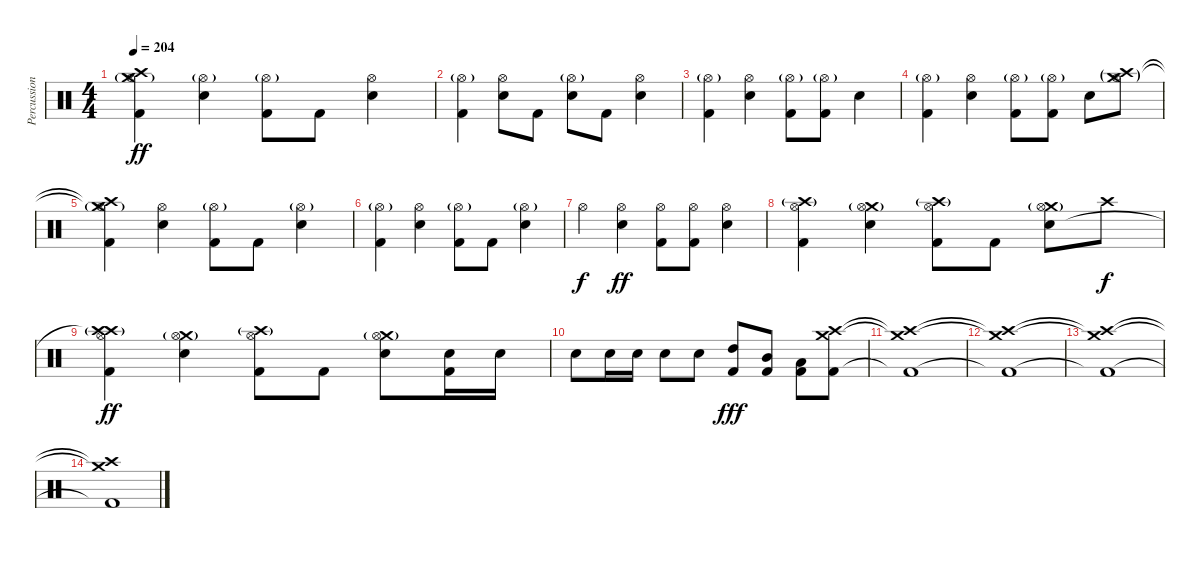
\track ("Percussion" "Percussion") {instrument percussion}
\staff {score}
\articulation defaults
\ts (4 4)
\tempo 204
\clef neutral
\ks c
("Crash medium (hit)"{t} "Crash high (hit)"{t} "Hi-Hat (open)"{g} "Kick (hit) 2").4{dy ff} ("Electric Snare (hit)" "Hi-Hat (open)"{g}).4 ("Hi-Hat (open)"{g} "Kick (hit) 2").8 "Kick (hit) 2".8 ("Electric Snare (hit)" "Hi-Hat (open)").4 |
("Hi-Hat (open)"{g} "Kick (hit) 2").4 ("Electric Snare (hit)" "Hi-Hat (open)").8 "Kick (hit) 2".8 ("Electric Snare (hit)" "Hi-Hat (open)"{g}).8 "Kick (hit) 2".8 ("Electric Snare (hit)" "Hi-Hat (open)").4 |
("Hi-Hat (open)"{g} "Kick (hit) 2").4 ("Electric Snare (hit)" "Hi-Hat (open)").4 ("Hi-Hat (open)"{g} "Kick (hit) 2").8 ("Hi-Hat (open)"{g} "Kick (hit) 2").8 "Electric Snare (hit)".4 |
("Hi-Hat (open)"{g} "Kick (hit) 2").4 ("Electric Snare (hit)" "Hi-Hat (open)").4 ("Hi-Hat (open)"{g} "Kick (hit) 2").8 ("Hi-Hat (open)"{g} "Kick (hit) 2").8 "Electric Snare (hit)".8 ("Crash medium (hit)"{g} "Crash high (hit)"{g} "Hi-Hat (open)"{g}).8 |
("Crash medium (hit)"{t} "Crash high (hit)"{t} "Hi-Hat (open)"{g} "Kick (hit) 2").4 ("Electric Snare (hit)" "Hi-Hat (open)").4 ("Hi-Hat (open)"{g} "Kick (hit) 2").8 "Kick (hit) 2".8 ("Electric Snare (hit)" "Hi-Hat (open)"{g}).4 |
("Hi-Hat (open)"{g} "Kick (hit) 2").4 ("Electric Snare (hit)" "Hi-Hat (open)").4 ("Hi-Hat (open)"{g} "Kick (hit) 2").8 "Kick (hit) 2".8 ("Electric Snare (hit)" "Hi-Hat (open)"{g}).4 |
"Hi-Hat (open)".4{dy f} ("Electric Snare (hit)" "Hi-Hat (open)").4{dy ff} ("Hi-Hat (open)" "Kick (hit) 2").8 ("Hi-Hat (open)" "Kick (hit) 2").8 ("Electric Snare (hit)" "Hi-Hat (open)").4 |
("Crash high (hit)"{g} "Hi-Hat (open)" "Kick (hit) 2").4 ("Crash medium (hit)"{g} "Electric Snare (hit)" "Hi-Hat (open)").4 ("Crash high (hit)"{g} "Hi-Hat (open)" "Kick (hit) 2").8 "Kick (hit) 2".8 ("Crash medium (hit)"{g} "Electric Snare (hit)" "Hi-Hat (open)").8 "Crash high (hit)".8{dy f} |
("Crash high (hit)"{g} "Crash high (hit)"{t} "Hi-Hat (open)" "Kick (hit) 2").4{dy ff} ("Crash medium (hit)"{g} "Electric Snare (hit)" "Hi-Hat (open)").4 ("Crash high (hit)"{g} "Hi-Hat (open)" "Kick (hit) 2").8 "Kick (hit) 2".8 ("Crash medium (hit)"{g} "Electric Snare (hit)" "Hi-Hat (open)").8 ("Electric Snare (hit)" "Kick (hit) 2").16 "Electric Snare (hit)".16 |
"Electric Snare (hit)".8 "Electric Snare (hit)".16 "Electric Snare (hit)".16 "Electric Snare (hit)".8 "Electric Snare (hit)".8 ("High Tom (hit)" "Kick (hit) 2").8{dy fff} ("Mid Tom (hit)" "Kick (hit) 2").8 ("Low Tom (hit)" "Kick (hit) 2").8 ("Crash high (hit)" "Crash medium (hit)" "Kick (hit) 2").8 |
("Crash high (hit)"{t} "Crash medium (hit)"{t} "Kick (hit) 2"{t}).1 |
("Crash high (hit)"{t} "Crash medium (hit)"{t} "Kick (hit) 2"{t}).1 |
("Crash high (hit)"{t} "Crash medium (hit)"{t} "Kick (hit) 2"{t}).1 |
("Crash high (hit)"{t} "Crash medium (hit)"{t} "Kick (hit) 2"{t}).1
